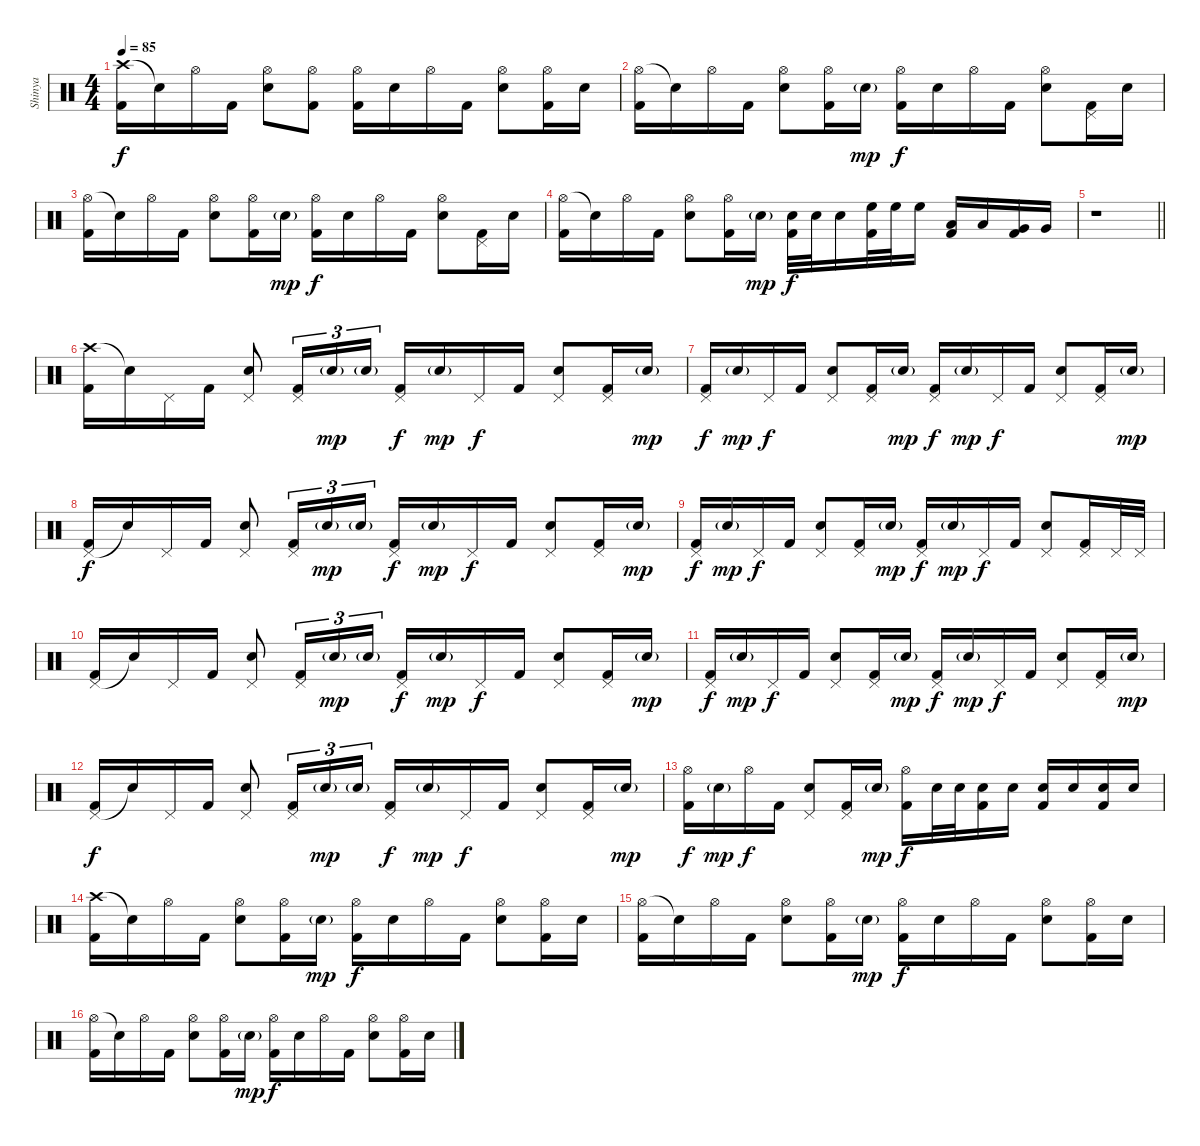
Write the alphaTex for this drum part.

\track ("Shinya" "Shinya") {instrument percussion}
\staff {score}
\articulation defaults
\ts (4 4)
\tempo 85
\clef neutral
\ks c
("Crash high (hit)" "Kick (hit) 2").16{dy f} "Snare (hit)"{t}.16 "Hi-Hat (open)".16 "Kick (hit) 2".16 ("Hi-Hat (open)" "Electric Snare (hit)").8 ("Hi-Hat (open)" "Kick (hit) 2").8 ("Hi-Hat (open)" "Kick (hit) 2").16 "Electric Snare (hit)".16 "Hi-Hat (open)".16 "Kick (hit) 2".16 ("Hi-Hat (open)" "Electric Snare (hit)").8 ("Hi-Hat (open)" "Kick (hit) 2").16 "Electric Snare (hit)".16 |
("Hi-Hat (open)" "Kick (hit) 2").16 "Snare (hit)"{t}.16 "Hi-Hat (open)".16 "Kick (hit) 2".16 ("Hi-Hat (open)" "Electric Snare (hit)").8 ("Hi-Hat (open)" "Kick (hit) 2").16 "Electric Snare (hit)"{g}.16{dy mp} ("Hi-Hat (open)" "Kick (hit) 2").16{dy f} "Electric Snare (hit)".16 "Hi-Hat (open)".16 "Kick (hit) 2".16 ("Hi-Hat (open)" "Electric Snare (hit)").8 ("Pedal Hi-Hat (hit)" "Kick (hit) 2").16 "Electric Snare (hit)".16 |
("Hi-Hat (open)" "Kick (hit) 2").16 "Snare (hit)"{t}.16 "Hi-Hat (open)".16 "Kick (hit) 2".16 ("Hi-Hat (open)" "Electric Snare (hit)").8 ("Hi-Hat (open)" "Kick (hit) 2").16 "Electric Snare (hit)"{g}.16{dy mp} ("Hi-Hat (open)" "Kick (hit) 2").16{dy f} "Electric Snare (hit)".16 "Hi-Hat (open)".16 "Kick (hit) 2".16 ("Hi-Hat (open)" "Electric Snare (hit)").8 ("Pedal Hi-Hat (hit)" "Kick (hit) 2").16 "Electric Snare (hit)".16 |
("Hi-Hat (open)" "Kick (hit) 2").16 "Snare (hit)"{t}.16 "Hi-Hat (open)".16 "Kick (hit) 2".16 ("Hi-Hat (open)" "Electric Snare (hit)").8 ("Hi-Hat (open)" "Kick (hit) 2").16 "Electric Snare (hit)"{g}.16{dy mp} ("Electric Snare (hit)" "Kick (hit) 2").32{dy f} "Electric Snare (hit)".32 "Electric Snare (hit)".16 ("High Floor Tom (hit)" "Kick (hit) 2").32 "High Floor Tom (hit)".32 "High Floor Tom (hit)".16 ("Low Tom (hit)" "Kick (hit) 2").16 "Low Tom (hit)".16 ("Very Low Tom (hit)" "Kick (hit) 2").16 "Very Low Tom (hit)".16 |
\barLineRight lightlight
r.1 |
("Crash high (hit)" "Kick (hit) 2").16 "Snare (hit)"{t}.16 "Pedal Hi-Hat (hit)".16 "Kick (hit) 2".16 ("Pedal Hi-Hat (hit)" "Electric Snare (hit)").8 ("Pedal Hi-Hat (hit)" "Kick (hit) 2").16{tu (3 2)} "Electric Snare (hit)"{g}.16{tu (3 2) dy mp} "Electric Snare (hit)"{g}.16{tu (3 2)} ("Pedal Hi-Hat (hit)" "Kick (hit) 2").16{dy f} "Electric Snare (hit)"{g}.16{dy mp} "Pedal Hi-Hat (hit)".16{dy f} "Kick (hit) 2".16 ("Pedal Hi-Hat (hit)" "Electric Snare (hit)").8 ("Pedal Hi-Hat (hit)" "Kick (hit) 2").16 "Electric Snare (hit)"{g}.16{dy mp} |
("Pedal Hi-Hat (hit)" "Kick (hit) 2").16{dy f} "Electric Snare (hit)"{g}.16{dy mp} "Pedal Hi-Hat (hit)".16{dy f} "Kick (hit) 2".16 ("Pedal Hi-Hat (hit)" "Electric Snare (hit)").8 ("Pedal Hi-Hat (hit)" "Kick (hit) 2").16 "Electric Snare (hit)"{g}.16{dy mp} ("Pedal Hi-Hat (hit)" "Kick (hit) 2").16{dy f} "Electric Snare (hit)"{g}.16{dy mp} "Pedal Hi-Hat (hit)".16{dy f} "Kick (hit) 2".16 ("Pedal Hi-Hat (hit)" "Electric Snare (hit)").8 ("Pedal Hi-Hat (hit)" "Kick (hit) 2").16 "Electric Snare (hit)"{g}.16{dy mp} |
("Pedal Hi-Hat (hit)" "Kick (hit) 2").16{dy f} "Snare (hit)"{t}.16 "Pedal Hi-Hat (hit)".16 "Kick (hit) 2".16 ("Pedal Hi-Hat (hit)" "Electric Snare (hit)").8 ("Pedal Hi-Hat (hit)" "Kick (hit) 2").16{tu (3 2)} "Electric Snare (hit)"{g}.16{tu (3 2) dy mp} "Electric Snare (hit)"{g}.16{tu (3 2)} ("Pedal Hi-Hat (hit)" "Kick (hit) 2").16{dy f} "Electric Snare (hit)"{g}.16{dy mp} "Pedal Hi-Hat (hit)".16{dy f} "Kick (hit) 2".16 ("Pedal Hi-Hat (hit)" "Electric Snare (hit)").8 ("Pedal Hi-Hat (hit)" "Kick (hit) 2").16 "Electric Snare (hit)"{g}.16{dy mp} |
("Pedal Hi-Hat (hit)" "Kick (hit) 2").16{dy f} "Electric Snare (hit)"{g}.16{dy mp} "Pedal Hi-Hat (hit)".16{dy f} "Kick (hit) 2".16 ("Pedal Hi-Hat (hit)" "Electric Snare (hit)").8 ("Pedal Hi-Hat (hit)" "Kick (hit) 2").16 "Electric Snare (hit)"{g}.16{dy mp} ("Pedal Hi-Hat (hit)" "Kick (hit) 2").16{dy f} "Electric Snare (hit)"{g}.16{dy mp} "Pedal Hi-Hat (hit)".16{dy f} "Kick (hit) 2".16 ("Pedal Hi-Hat (hit)" "Electric Snare (hit)").8 ("Pedal Hi-Hat (hit)" "Kick (hit) 2").16 "Pedal Hi-Hat (hit)".32 "Pedal Hi-Hat (hit)".32 |
("Pedal Hi-Hat (hit)" "Kick (hit) 2").16 "Snare (hit)"{t}.16 "Pedal Hi-Hat (hit)".16 "Kick (hit) 2".16 ("Pedal Hi-Hat (hit)" "Electric Snare (hit)").8 ("Pedal Hi-Hat (hit)" "Kick (hit) 2").16{tu (3 2)} "Electric Snare (hit)"{g}.16{tu (3 2) dy mp} "Electric Snare (hit)"{g}.16{tu (3 2)} ("Pedal Hi-Hat (hit)" "Kick (hit) 2").16{dy f} "Electric Snare (hit)"{g}.16{dy mp} "Pedal Hi-Hat (hit)".16{dy f} "Kick (hit) 2".16 ("Pedal Hi-Hat (hit)" "Electric Snare (hit)").8 ("Pedal Hi-Hat (hit)" "Kick (hit) 2").16 "Electric Snare (hit)"{g}.16{dy mp} |
("Pedal Hi-Hat (hit)" "Kick (hit) 2").16{dy f} "Electric Snare (hit)"{g}.16{dy mp} "Pedal Hi-Hat (hit)".16{dy f} "Kick (hit) 2".16 ("Pedal Hi-Hat (hit)" "Electric Snare (hit)").8 ("Pedal Hi-Hat (hit)" "Kick (hit) 2").16 "Electric Snare (hit)"{g}.16{dy mp} ("Pedal Hi-Hat (hit)" "Kick (hit) 2").16{dy f} "Electric Snare (hit)"{g}.16{dy mp} "Pedal Hi-Hat (hit)".16{dy f} "Kick (hit) 2".16 ("Pedal Hi-Hat (hit)" "Electric Snare (hit)").8 ("Pedal Hi-Hat (hit)" "Kick (hit) 2").16 "Electric Snare (hit)"{g}.16{dy mp} |
("Pedal Hi-Hat (hit)" "Kick (hit) 2").16{dy f} "Snare (hit)"{t}.16 "Pedal Hi-Hat (hit)".16 "Kick (hit) 2".16 ("Pedal Hi-Hat (hit)" "Electric Snare (hit)").8 ("Pedal Hi-Hat (hit)" "Kick (hit) 2").16{tu (3 2)} "Electric Snare (hit)"{g}.16{tu (3 2) dy mp} "Electric Snare (hit)"{g}.16{tu (3 2)} ("Pedal Hi-Hat (hit)" "Kick (hit) 2").16{dy f} "Electric Snare (hit)"{g}.16{dy mp} "Pedal Hi-Hat (hit)".16{dy f} "Kick (hit) 2".16 ("Pedal Hi-Hat (hit)" "Electric Snare (hit)").8 ("Pedal Hi-Hat (hit)" "Kick (hit) 2").16 "Electric Snare (hit)"{g}.16{dy mp} |
("Hi-Hat (open)" "Kick (hit) 2").16{dy f} "Electric Snare (hit)"{g}.16{dy mp} "Hi-Hat (open)".16{dy f} "Kick (hit) 2".16 ("Pedal Hi-Hat (hit)" "Electric Snare (hit)").8 ("Pedal Hi-Hat (hit)" "Kick (hit) 2").16 "Electric Snare (hit)"{g}.16{dy mp} ("Hi-Hat (open)" "Kick (hit) 2").16{dy f} "Electric Snare (hit)".32 "Electric Snare (hit)".32 ("Electric Snare (hit)" "Kick (hit) 2").16 "Electric Snare (hit)".16 ("Electric Snare (hit)" "Kick (hit) 2").16 "Electric Snare (hit)".16 ("Electric Snare (hit)" "Kick (hit) 2").16 "Electric Snare (hit)".16 |
("Crash high (hit)" "Kick (hit) 2").16 "Snare (hit)"{t}.16 "Hi-Hat (open)".16 "Kick (hit) 2".16 ("Hi-Hat (open)" "Electric Snare (hit)").8 ("Hi-Hat (open)" "Kick (hit) 2").16 "Electric Snare (hit)"{g}.16{dy mp} ("Hi-Hat (open)" "Kick (hit) 2").16{dy f} "Electric Snare (hit)".16 "Hi-Hat (open)".16 "Kick (hit) 2".16 ("Hi-Hat (open)" "Electric Snare (hit)").8 ("Hi-Hat (open)" "Kick (hit) 2").16 "Electric Snare (hit)".16 |
("Hi-Hat (open)" "Kick (hit) 2").16 "Snare (hit)"{t}.16 "Hi-Hat (open)".16 "Kick (hit) 2".16 ("Hi-Hat (open)" "Electric Snare (hit)").8 ("Hi-Hat (open)" "Kick (hit) 2").16 "Electric Snare (hit)"{g}.16{dy mp} ("Hi-Hat (open)" "Kick (hit) 2").16{dy f} "Electric Snare (hit)".16 "Hi-Hat (open)".16 "Kick (hit) 2".16 ("Hi-Hat (open)" "Electric Snare (hit)").8 ("Hi-Hat (open)" "Kick (hit) 2").16 "Electric Snare (hit)".16 |
("Hi-Hat (open)" "Kick (hit) 2").16 "Snare (hit)"{t}.16 "Hi-Hat (open)".16 "Kick (hit) 2".16 ("Hi-Hat (open)" "Electric Snare (hit)").8 ("Hi-Hat (open)" "Kick (hit) 2").16 "Electric Snare (hit)"{g}.16{dy mp} ("Hi-Hat (open)" "Kick (hit) 2").16{dy f} "Electric Snare (hit)".16 "Hi-Hat (open)".16 "Kick (hit) 2".16 ("Hi-Hat (open)" "Electric Snare (hit)").8 ("Hi-Hat (open)" "Kick (hit) 2").16 "Electric Snare (hit)".16
